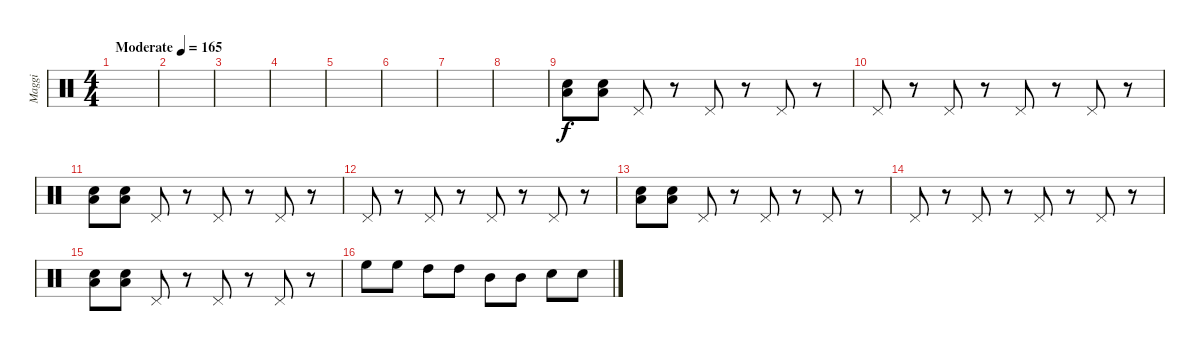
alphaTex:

\track ("Maggi" "Maggi") {instrument percussion}
\staff {score}
\articulation defaults
\ts (4 4)
\tempo (165 "Moderate")
\clef neutral
\ks c
|
|
|
|
|
|
|
|
("Low Tom (hit)" "Snare (hit) 2").8 ("Low Tom (hit)" "Snare (hit) 2").8 "Pedal Hi-Hat (hit)".8 r.8 "Pedal Hi-Hat (hit)".8 r.8 "Pedal Hi-Hat (hit)".8 r.8 |
"Pedal Hi-Hat (hit)".8 r.8 "Pedal Hi-Hat (hit)".8 r.8 "Pedal Hi-Hat (hit)".8 r.8 "Pedal Hi-Hat (hit)".8 r.8 |
("Low Tom (hit)" "Snare (hit) 2").8 ("Low Tom (hit)" "Snare (hit) 2").8 "Pedal Hi-Hat (hit)".8 r.8 "Pedal Hi-Hat (hit)".8 r.8 "Pedal Hi-Hat (hit)".8 r.8 |
"Pedal Hi-Hat (hit)".8 r.8 "Pedal Hi-Hat (hit)".8 r.8 "Pedal Hi-Hat (hit)".8 r.8 "Pedal Hi-Hat (hit)".8 r.8 |
("Low Tom (hit)" "Snare (hit) 2").8 ("Low Tom (hit)" "Snare (hit) 2").8 "Pedal Hi-Hat (hit)".8 r.8 "Pedal Hi-Hat (hit)".8 r.8 "Pedal Hi-Hat (hit)".8 r.8 |
"Pedal Hi-Hat (hit)".8 r.8 "Pedal Hi-Hat (hit)".8 r.8 "Pedal Hi-Hat (hit)".8 r.8 "Pedal Hi-Hat (hit)".8 r.8 |
("Low Tom (hit)" "Snare (hit) 2").8 ("Low Tom (hit)" "Snare (hit) 2").8 "Pedal Hi-Hat (hit)".8 r.8 "Pedal Hi-Hat (hit)".8 r.8 "Pedal Hi-Hat (hit)".8 r.8 |
"High Floor Tom (hit)".8 "High Floor Tom (hit)".8 "High Tom (hit)".8 "High Tom (hit)".8 "Mid Tom (hit)".8 "Mid Tom (hit)".8 "Snare (hit) 2".8 "Snare (hit) 2".8
